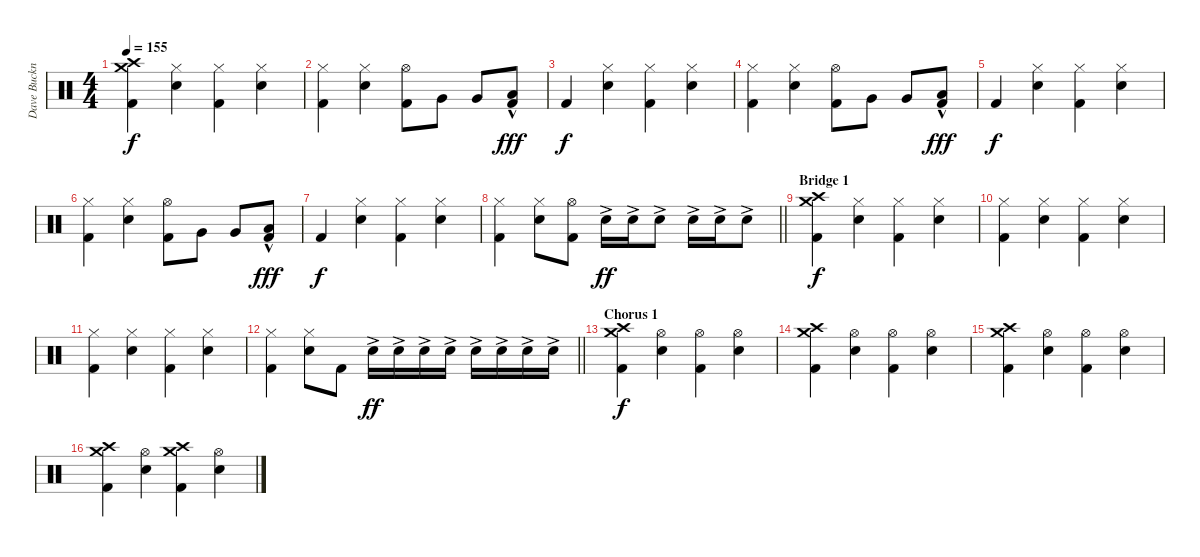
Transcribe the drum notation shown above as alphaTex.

\track ("Dave Buckner (Drums)" "Dave Buckn") {instrument percussion}
\staff {score}
\articulation defaults
\ts (4 4)
\tempo 155
\clef neutral
\ks c
("Crash medium (hit)" "Crash high (hit)" "Kick (hit) 2").4{dy f} ("Hi-Hat (closed)" "Electric Snare (hit)").4 ("Hi-Hat (closed)" "Kick (hit) 2").4 ("Hi-Hat (closed)" "Electric Snare (hit)").4 |
("Hi-Hat (closed)" "Kick (hit) 2").4 ("Hi-Hat (closed)" "Electric Snare (hit)").4 ("Hi-Hat (open)" "Kick (hit) 2").8 "Very Low Tom (hit)".8 "Very Low Tom (hit)".8 ("Low Floor Tom (hit)"{hac} "Kick (hit) 2").8{dy fff} |
"Kick (hit) 2".4{dy f} ("Hi-Hat (closed)" "Electric Snare (hit)").4 ("Hi-Hat (closed)" "Kick (hit) 2").4 ("Hi-Hat (closed)" "Electric Snare (hit)").4 |
("Hi-Hat (closed)" "Kick (hit) 2").4 ("Hi-Hat (closed)" "Electric Snare (hit)").4 ("Hi-Hat (open)" "Kick (hit) 2").8 "Very Low Tom (hit)".8 "Very Low Tom (hit)".8 ("Low Floor Tom (hit)"{hac} "Kick (hit) 2").8{dy fff} |
"Kick (hit) 2".4{dy f} ("Hi-Hat (closed)" "Electric Snare (hit)").4 ("Hi-Hat (closed)" "Kick (hit) 2").4 ("Hi-Hat (closed)" "Electric Snare (hit)").4 |
("Hi-Hat (closed)" "Kick (hit) 2").4 ("Hi-Hat (closed)" "Electric Snare (hit)").4 ("Hi-Hat (open)" "Kick (hit) 2").8 "Very Low Tom (hit)".8 "Very Low Tom (hit)".8 ("Low Floor Tom (hit)"{hac} "Kick (hit) 2").8{dy fff} |
"Kick (hit) 2".4{dy f} ("Hi-Hat (closed)" "Electric Snare (hit)").4 ("Hi-Hat (closed)" "Kick (hit) 2").4 ("Hi-Hat (closed)" "Electric Snare (hit)").4 |
\barLineRight lightlight
("Hi-Hat (closed)" "Kick (hit) 2").4 ("Hi-Hat (closed)" "Electric Snare (hit)").8 ("Hi-Hat (open)" "Kick (hit) 2").8 "Electric Snare (hit)"{ac}.16{dy ff} "Electric Snare (hit)"{ac}.16 "Electric Snare (hit)"{ac}.8 "Electric Snare (hit)"{ac}.16 "Electric Snare (hit)"{ac}.16 "Electric Snare (hit)"{ac}.8 |
\section ("" "Bridge 1")
("Crash medium (hit)" "Crash high (hit)" "Kick (hit) 2").4{dy f} ("Hi-Hat (closed)" "Electric Snare (hit)").4 ("Hi-Hat (closed)" "Kick (hit) 2").4 ("Hi-Hat (closed)" "Electric Snare (hit)").4 |
("Hi-Hat (closed)" "Kick (hit) 2").4 ("Hi-Hat (closed)" "Electric Snare (hit)").4 ("Hi-Hat (closed)" "Kick (hit) 2").4 ("Hi-Hat (closed)" "Electric Snare (hit)").4 |
("Hi-Hat (closed)" "Kick (hit) 2").4 ("Hi-Hat (closed)" "Electric Snare (hit)").4 ("Hi-Hat (closed)" "Kick (hit) 2").4 ("Hi-Hat (closed)" "Electric Snare (hit)").4 |
\barLineRight lightlight
("Hi-Hat (closed)" "Kick (hit) 2").4 ("Hi-Hat (closed)" "Electric Snare (hit)").8 "Kick (hit) 2".8 "Electric Snare (hit)"{ac}.16{dy ff} "Electric Snare (hit)"{ac}.16 "Electric Snare (hit)"{ac}.16 "Electric Snare (hit)"{ac}.16 "Electric Snare (hit)"{ac}.16 "Electric Snare (hit)"{ac}.16 "Electric Snare (hit)"{ac}.16 "Electric Snare (hit)"{ac}.16 |
\section ("" "Chorus 1")
("Crash medium (hit)" "Crash high (hit)" "Kick (hit) 2").4{dy f} ("Hi-Hat (open)" "Electric Snare (hit)").4 ("Hi-Hat (open)" "Kick (hit) 2").4 ("Hi-Hat (open)" "Electric Snare (hit)").4 |
("Crash medium (hit)" "Crash high (hit)" "Kick (hit) 2").4 ("Hi-Hat (open)" "Electric Snare (hit)").4 ("Hi-Hat (open)" "Kick (hit) 2").4 ("Hi-Hat (open)" "Electric Snare (hit)").4 |
("Crash medium (hit)" "Crash high (hit)" "Kick (hit) 2").4 ("Hi-Hat (open)" "Electric Snare (hit)").4 ("Hi-Hat (open)" "Kick (hit) 2").4 ("Hi-Hat (open)" "Electric Snare (hit)").4 |
("Crash medium (hit)" "Crash high (hit)" "Kick (hit) 2").4 ("Hi-Hat (open)" "Electric Snare (hit)").4 ("Crash medium (hit)" "Crash high (hit)" "Kick (hit) 2").4 ("Hi-Hat (open)" "Electric Snare (hit)").4
